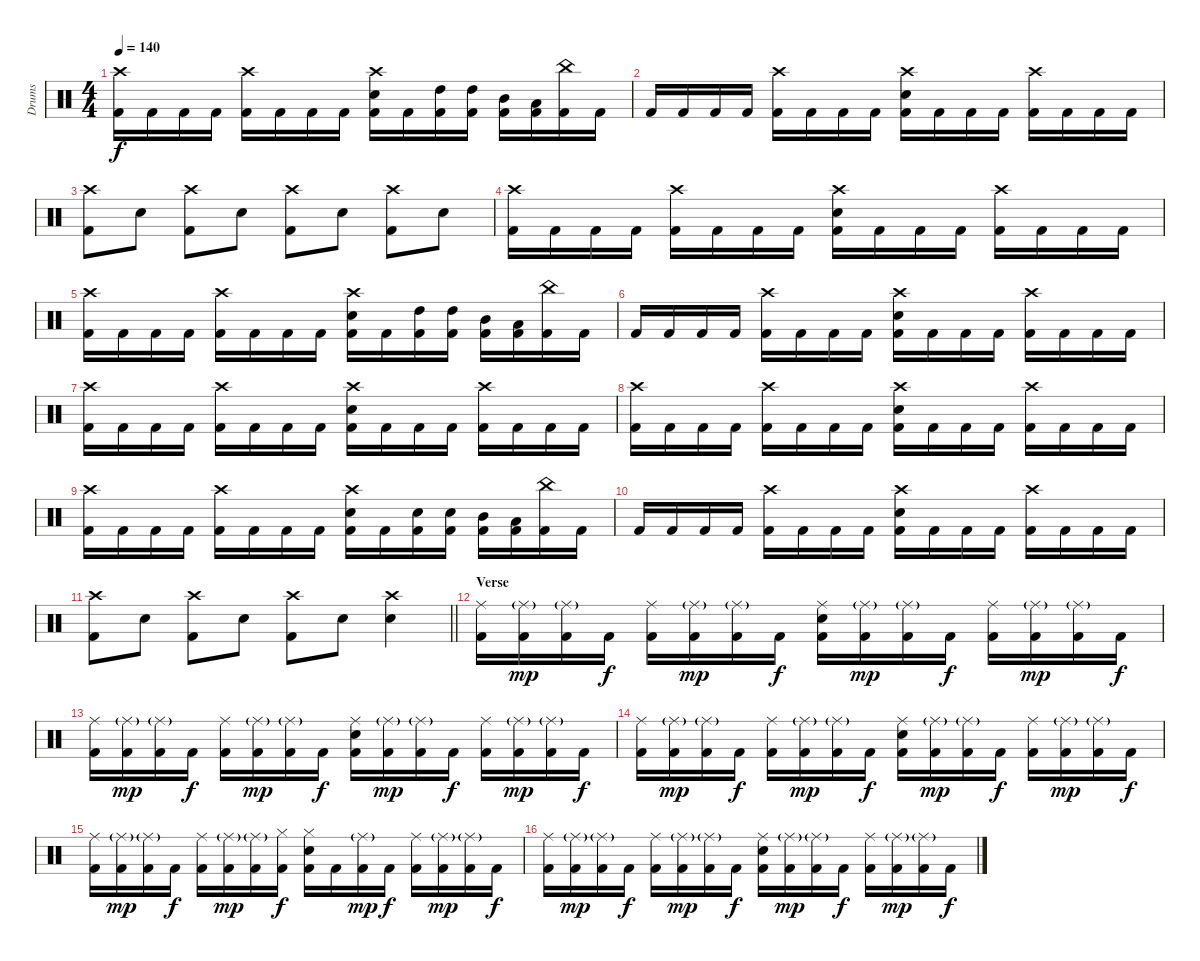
\track ("Drums" "Drums") {instrument percussion}
\staff {score}
\articulation defaults
\ts (4 4)
\tempo 140
\clef neutral
\ks c
("Crash high (hit)" "Kick (hit) 2").16{dy f} "Kick (hit) 2".16 "Kick (hit) 2".16 "Kick (hit) 2".16 ("Crash high (hit)" "Kick (hit) 2").16 "Kick (hit) 2".16 "Kick (hit) 2".16 "Kick (hit) 2".16 ("Crash high (hit)" "Electric Snare (hit)" "Kick (hit) 2").16 "Kick (hit) 2".16 ("High Tom (hit)" "Kick (hit) 2").16 ("High Tom (hit)" "Kick (hit) 2").16 ("Mid Tom (hit)" "Kick (hit) 2").16 ("Low Tom (hit)" "Kick (hit) 2").16 ("China (hit)" "Kick (hit) 2").16 "Kick (hit) 2".16 |
"Kick (hit) 2".16 "Kick (hit) 2".16 "Kick (hit) 2".16 "Kick (hit) 2".16 ("Crash high (hit)" "Kick (hit) 2").16 "Kick (hit) 2".16 "Kick (hit) 2".16 "Kick (hit) 2".16 ("Crash high (hit)" "Electric Snare (hit)" "Kick (hit) 2").16 "Kick (hit) 2".16 "Kick (hit) 2".16 "Kick (hit) 2".16 ("Crash high (hit)" "Kick (hit) 2").16 "Kick (hit) 2".16 "Kick (hit) 2".16 "Kick (hit) 2".16 |
("Crash high (hit)" "Kick (hit) 2").8 "Electric Snare (hit)".8 ("Crash high (hit)" "Kick (hit) 2").8 "Electric Snare (hit)".8 ("Crash high (hit)" "Kick (hit) 2").8 "Electric Snare (hit)".8 ("Crash high (hit)" "Kick (hit) 2").8 "Electric Snare (hit)".8 |
("Crash high (hit)" "Kick (hit) 2").16 "Kick (hit) 2".16 "Kick (hit) 2".16 "Kick (hit) 2".16 ("Crash high (hit)" "Kick (hit) 2").16 "Kick (hit) 2".16 "Kick (hit) 2".16 "Kick (hit) 2".16 ("Crash high (hit)" "Electric Snare (hit)" "Kick (hit) 2").16 "Kick (hit) 2".16 "Kick (hit) 2".16 "Kick (hit) 2".16 ("Crash high (hit)" "Kick (hit) 2").16 "Kick (hit) 2".16 "Kick (hit) 2".16 "Kick (hit) 2".16 |
("Crash high (hit)" "Kick (hit) 2").16 "Kick (hit) 2".16 "Kick (hit) 2".16 "Kick (hit) 2".16 ("Crash high (hit)" "Kick (hit) 2").16 "Kick (hit) 2".16 "Kick (hit) 2".16 "Kick (hit) 2".16 ("Crash high (hit)" "Electric Snare (hit)" "Kick (hit) 2").16 "Kick (hit) 2".16 ("High Tom (hit)" "Kick (hit) 2").16 ("High Tom (hit)" "Kick (hit) 2").16 ("Mid Tom (hit)" "Kick (hit) 2").16 ("Low Tom (hit)" "Kick (hit) 2").16 ("China (hit)" "Kick (hit) 2").16 "Kick (hit) 2".16 |
"Kick (hit) 2".16 "Kick (hit) 2".16 "Kick (hit) 2".16 "Kick (hit) 2".16 ("Crash high (hit)" "Kick (hit) 2").16 "Kick (hit) 2".16 "Kick (hit) 2".16 "Kick (hit) 2".16 ("Crash high (hit)" "Electric Snare (hit)" "Kick (hit) 2").16 "Kick (hit) 2".16 "Kick (hit) 2".16 "Kick (hit) 2".16 ("Crash high (hit)" "Kick (hit) 2").16 "Kick (hit) 2".16 "Kick (hit) 2".16 "Kick (hit) 2".16 |
("Crash high (hit)" "Kick (hit) 2").16 "Kick (hit) 2".16 "Kick (hit) 2".16 "Kick (hit) 2".16 ("Crash high (hit)" "Kick (hit) 2").16 "Kick (hit) 2".16 "Kick (hit) 2".16 "Kick (hit) 2".16 ("Crash high (hit)" "Electric Snare (hit)" "Kick (hit) 2").16 "Kick (hit) 2".16 "Kick (hit) 2".16 "Kick (hit) 2".16 ("Crash high (hit)" "Kick (hit) 2").16 "Kick (hit) 2".16 "Kick (hit) 2".16 "Kick (hit) 2".16 |
("Crash high (hit)" "Kick (hit) 2").16 "Kick (hit) 2".16 "Kick (hit) 2".16 "Kick (hit) 2".16 ("Crash high (hit)" "Kick (hit) 2").16 "Kick (hit) 2".16 "Kick (hit) 2".16 "Kick (hit) 2".16 ("Crash high (hit)" "Electric Snare (hit)" "Kick (hit) 2").16 "Kick (hit) 2".16 "Kick (hit) 2".16 "Kick (hit) 2".16 ("Crash high (hit)" "Kick (hit) 2").16 "Kick (hit) 2".16 "Kick (hit) 2".16 "Kick (hit) 2".16 |
("Crash high (hit)" "Kick (hit) 2").16 "Kick (hit) 2".16 "Kick (hit) 2".16 "Kick (hit) 2".16 ("Crash high (hit)" "Kick (hit) 2").16 "Kick (hit) 2".16 "Kick (hit) 2".16 "Kick (hit) 2".16 ("Crash high (hit)" "Electric Snare (hit)" "Kick (hit) 2").16 "Kick (hit) 2".16 ("Electric Snare (hit)" "Kick (hit) 2").16 ("Electric Snare (hit)" "Kick (hit) 2").16 ("Mid Tom (hit)" "Kick (hit) 2").16 ("Low Tom (hit)" "Kick (hit) 2").16 ("China (hit)" "Kick (hit) 2").16 "Kick (hit) 2".16 |
"Kick (hit) 2".16 "Kick (hit) 2".16 "Kick (hit) 2".16 "Kick (hit) 2".16 ("Crash high (hit)" "Kick (hit) 2").16 "Kick (hit) 2".16 "Kick (hit) 2".16 "Kick (hit) 2".16 ("Crash high (hit)" "Electric Snare (hit)" "Kick (hit) 2").16 "Kick (hit) 2".16 "Kick (hit) 2".16 "Kick (hit) 2".16 ("Crash high (hit)" "Kick (hit) 2").16 "Kick (hit) 2".16 "Kick (hit) 2".16 "Kick (hit) 2".16 |
\barLineRight lightlight
("Crash high (hit)" "Kick (hit) 2").8 "Electric Snare (hit)".8 ("Crash high (hit)" "Kick (hit) 2").8 "Electric Snare (hit)".8 ("Crash high (hit)" "Kick (hit) 2").8 "Electric Snare (hit)".8 ("Crash high (hit)" "Electric Snare (hit)").4 |
\section ("" "Verse")
("Ride (middle)" "Kick (hit) 2").16 ("Ride (middle)"{g} "Kick (hit) 2").16{dy mp} ("Ride (middle)"{g} "Kick (hit) 2").16 "Kick (hit) 2".16{dy f} ("Ride (middle)" "Kick (hit) 2").16 ("Ride (middle)"{g} "Kick (hit) 2").16{dy mp} ("Ride (middle)"{g} "Kick (hit) 2").16 "Kick (hit) 2".16{dy f} ("Ride (middle)" "Electric Snare (hit)" "Kick (hit) 2").16 ("Ride (middle)"{g} "Kick (hit) 2").16{dy mp} ("Ride (middle)"{g} "Kick (hit) 2").16 "Kick (hit) 2".16{dy f} ("Ride (middle)" "Kick (hit) 2").16 ("Ride (middle)"{g} "Kick (hit) 2").16{dy mp} ("Ride (middle)"{g} "Kick (hit) 2").16 "Kick (hit) 2".16{dy f} |
("Ride (middle)" "Kick (hit) 2").16 ("Ride (middle)"{g} "Kick (hit) 2").16{dy mp} ("Ride (middle)"{g} "Kick (hit) 2").16 "Kick (hit) 2".16{dy f} ("Ride (middle)" "Kick (hit) 2").16 ("Ride (middle)"{g} "Kick (hit) 2").16{dy mp} ("Ride (middle)"{g} "Kick (hit) 2").16 "Kick (hit) 2".16{dy f} ("Ride (middle)" "Electric Snare (hit)" "Kick (hit) 2").16 ("Ride (middle)"{g} "Kick (hit) 2").16{dy mp} ("Ride (middle)"{g} "Kick (hit) 2").16 "Kick (hit) 2".16{dy f} ("Ride (middle)" "Kick (hit) 2").16 ("Ride (middle)"{g} "Kick (hit) 2").16{dy mp} ("Ride (middle)"{g} "Kick (hit) 2").16 "Kick (hit) 2".16{dy f} |
("Ride (middle)" "Kick (hit) 2").16 ("Ride (middle)"{g} "Kick (hit) 2").16{dy mp} ("Ride (middle)"{g} "Kick (hit) 2").16 "Kick (hit) 2".16{dy f} ("Ride (middle)" "Kick (hit) 2").16 ("Ride (middle)"{g} "Kick (hit) 2").16{dy mp} ("Ride (middle)"{g} "Kick (hit) 2").16 "Kick (hit) 2".16{dy f} ("Ride (middle)" "Electric Snare (hit)" "Kick (hit) 2").16 ("Ride (middle)"{g} "Kick (hit) 2").16{dy mp} ("Ride (middle)"{g} "Kick (hit) 2").16 "Kick (hit) 2".16{dy f} ("Ride (middle)" "Kick (hit) 2").16 ("Ride (middle)"{g} "Kick (hit) 2").16{dy mp} ("Ride (middle)"{g} "Kick (hit) 2").16 "Kick (hit) 2".16{dy f} |
("Ride (middle)" "Kick (hit) 2").16 ("Ride (middle)"{g} "Kick (hit) 2").16{dy mp} ("Ride (middle)"{g} "Kick (hit) 2").16 "Kick (hit) 2".16{dy f} ("Ride (middle)" "Kick (hit) 2").16 ("Ride (middle)"{g} "Kick (hit) 2").16{dy mp} ("Ride (middle)"{g} "Kick (hit) 2").16 ("Hi-Hat (closed)" "Kick (hit) 2").16{dy f} ("Hi-Hat (closed)" "Electric Snare (hit)" "Kick (hit) 2").16 "Kick (hit) 2".16 ("Ride (middle)"{g} "Kick (hit) 2").16{dy mp} "Kick (hit) 2".16{dy f} ("Ride (middle)" "Kick (hit) 2").16 ("Ride (middle)"{g} "Kick (hit) 2").16{dy mp} ("Ride (middle)"{g} "Kick (hit) 2").16 "Kick (hit) 2".16{dy f} |
("Ride (middle)" "Kick (hit) 2").16 ("Ride (middle)"{g} "Kick (hit) 2").16{dy mp} ("Ride (middle)"{g} "Kick (hit) 2").16 "Kick (hit) 2".16{dy f} ("Ride (middle)" "Kick (hit) 2").16 ("Ride (middle)"{g} "Kick (hit) 2").16{dy mp} ("Ride (middle)"{g} "Kick (hit) 2").16 "Kick (hit) 2".16{dy f} ("Ride (middle)" "Electric Snare (hit)" "Kick (hit) 2").16 ("Ride (middle)"{g} "Kick (hit) 2").16{dy mp} ("Ride (middle)"{g} "Kick (hit) 2").16 "Kick (hit) 2".16{dy f} ("Ride (middle)" "Kick (hit) 2").16 ("Ride (middle)"{g} "Kick (hit) 2").16{dy mp} ("Ride (middle)"{g} "Kick (hit) 2").16 "Kick (hit) 2".16{dy f}
